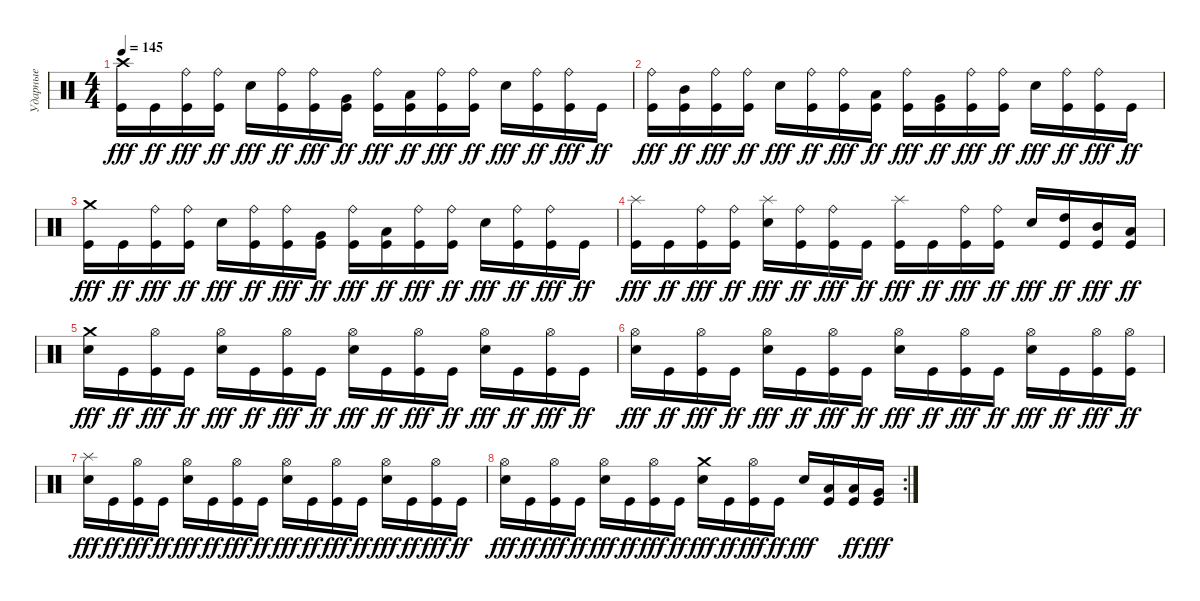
\track ("Ударные" "Ударные") {instrument percussion}
\staff {score}
\articulation defaults
\ts (4 4)
\tempo 145
\clef neutral
\ks c
("Crash high (hit)" "Kick (hit)").16{dy fff} "Kick (hit)".16{dy ff} ("Ride (bell)" "Kick (hit)").16{dy fff} ("Ride (bell)" "Kick (hit)").16{dy ff} "Electric Snare (hit)".16{dy fff} ("Ride (bell)" "Kick (hit)").16{dy ff} ("Ride (bell)" "Kick (hit)").16{dy fff} ("Very Low Tom (hit)" "Kick (hit)").16{dy ff} ("Ride (bell)" "Kick (hit)").16{dy fff} ("Low Tom (hit)" "Kick (hit)").16{dy ff} ("Ride (bell)" "Kick (hit)").16{dy fff} ("Ride (bell)" "Kick (hit)").16{dy ff} "Electric Snare (hit)".16{dy fff} ("Ride (bell)" "Kick (hit)").16{dy ff} ("Ride (bell)" "Kick (hit)").16{dy fff} "Kick (hit)".16{dy ff} |
("Ride (bell)" "Kick (hit)").16{dy fff} ("Mid Tom (hit)" "Kick (hit)").16{dy ff} ("Ride (bell)" "Kick (hit)").16{dy fff} ("Ride (bell)" "Kick (hit)").16{dy ff} "Electric Snare (hit)".16{dy fff} ("Ride (bell)" "Kick (hit)").16{dy ff} ("Ride (bell)" "Kick (hit)").16{dy fff} ("Low Floor Tom (hit)" "Kick (hit)").16{dy ff} ("Ride (bell)" "Kick (hit)").16{dy fff} ("Very Low Tom (hit)" "Kick (hit)").16{dy ff} ("Ride (bell)" "Kick (hit)").16{dy fff} ("Ride (bell)" "Kick (hit)").16{dy ff} "Electric Snare (hit)".16{dy fff} ("Ride (bell)" "Kick (hit)").16{dy ff} ("Ride (bell)" "Kick (hit)").16{dy fff} "Kick (hit)".16{dy ff} |
("Crash medium (hit)" "Kick (hit)").16{dy fff} "Kick (hit)".16{dy ff} ("Ride (bell)" "Kick (hit)").16{dy fff} ("Ride (bell)" "Kick (hit)").16{dy ff} "Electric Snare (hit)".16{dy fff} ("Ride (bell)" "Kick (hit)").16{dy ff} ("Ride (bell)" "Kick (hit)").16{dy fff} ("Very Low Tom (hit)" "Kick (hit)").16{dy ff} ("Ride (bell)" "Kick (hit)").16{dy fff} ("Low Tom (hit)" "Kick (hit)").16{dy ff} ("Ride (bell)" "Kick (hit)").16{dy fff} ("Ride (bell)" "Kick (hit)").16{dy ff} "Electric Snare (hit)".16{dy fff} ("Ride (bell)" "Kick (hit)").16{dy ff} ("Ride (bell)" "Kick (hit)").16{dy fff} "Kick (hit)".16{dy ff} |
("Splash (hit)" "Kick (hit)").16{dy fff} "Kick (hit)".16{dy ff} ("Ride (bell)" "Kick (hit)").16{dy fff} ("Ride (bell)" "Kick (hit)").16{dy ff} ("Splash (hit)" "Electric Snare (hit)").16{dy fff} ("Ride (bell)" "Kick (hit)").16{dy ff} ("Ride (bell)" "Kick (hit)").16{dy fff} "Kick (hit)".16{dy ff} ("Splash (hit)" "Kick (hit)").16{dy fff} "Kick (hit)".16{dy ff} ("Ride (bell)" "Kick (hit)").16{dy fff} ("Ride (bell)" "Kick (hit)").16{dy ff} "Electric Snare (hit)".16{dy fff} ("High Tom (hit)" "Kick (hit)").16{dy ff} ("Mid Tom (hit)" "Kick (hit)").16{dy fff} ("Low Tom (hit)" "Kick (hit)").16{dy ff} |
("Crash medium (hit)" "Electric Snare (hit)").16{dy fff} "Kick (hit)".16{dy ff} ("Hi-Hat (open)" "Kick (hit)").16{dy fff} "Kick (hit)".16{dy ff} ("Hi-Hat (open)" "Electric Snare (hit)").16{dy fff} "Kick (hit)".16{dy ff} ("Hi-Hat (open)" "Kick (hit)").16{dy fff} "Kick (hit)".16{dy ff} ("Hi-Hat (open)" "Electric Snare (hit)").16{dy fff} "Kick (hit)".16{dy ff} ("Hi-Hat (open)" "Kick (hit)").16{dy fff} "Kick (hit)".16{dy ff} ("Hi-Hat (open)" "Electric Snare (hit)").16{dy fff} "Kick (hit)".16{dy ff} ("Hi-Hat (open)" "Kick (hit)").16{dy fff} "Kick (hit)".16{dy ff} |
("Hi-Hat (open)" "Electric Snare (hit)").16{dy fff} "Kick (hit)".16{dy ff} ("Hi-Hat (open)" "Kick (hit)").16{dy fff} "Kick (hit)".16{dy ff} ("Hi-Hat (open)" "Electric Snare (hit)").16{dy fff} "Kick (hit)".16{dy ff} ("Hi-Hat (open)" "Kick (hit)").16{dy fff} "Kick (hit)".16{dy ff} ("Hi-Hat (open)" "Electric Snare (hit)").16{dy fff} "Kick (hit)".16{dy ff} ("Hi-Hat (open)" "Kick (hit)").16{dy fff} "Kick (hit)".16{dy ff} ("Hi-Hat (open)" "Electric Snare (hit)").16{dy fff} "Kick (hit)".16{dy ff} ("Hi-Hat (open)" "Kick (hit)").16{dy fff} ("Hi-Hat (open)" "Kick (hit)").16{dy ff} |
("Splash (hit)" "Electric Snare (hit)").16{dy fff} "Kick (hit)".16{dy ff} ("Hi-Hat (open)" "Kick (hit)").16{dy fff} "Kick (hit)".16{dy ff} ("Hi-Hat (open)" "Electric Snare (hit)").16{dy fff} "Kick (hit)".16{dy ff} ("Hi-Hat (open)" "Kick (hit)").16{dy fff} "Kick (hit)".16{dy ff} ("Hi-Hat (open)" "Electric Snare (hit)").16{dy fff} "Kick (hit)".16{dy ff} ("Hi-Hat (open)" "Kick (hit)").16{dy fff} "Kick (hit)".16{dy ff} ("Hi-Hat (open)" "Electric Snare (hit)").16{dy fff} "Kick (hit)".16{dy ff} ("Hi-Hat (open)" "Kick (hit)").16{dy fff} "Kick (hit)".16{dy ff} |
\rc 2
("Hi-Hat (open)" "Electric Snare (hit)").16{dy fff} "Kick (hit)".16{dy ff} ("Hi-Hat (open)" "Kick (hit)").16{dy fff} "Kick (hit)".16{dy ff} ("Hi-Hat (open)" "Electric Snare (hit)").16{dy fff} "Kick (hit)".16{dy ff} ("Hi-Hat (open)" "Kick (hit)").16{dy fff} "Kick (hit)".16{dy ff} ("Crash medium (hit)" "Electric Snare (hit)").16{dy fff} "Kick (hit)".16{dy ff} ("Hi-Hat (open)" "Kick (hit)").16{dy fff} "Kick (hit)".16{dy ff} "Electric Snare (hit)".16{dy fff} ("Low Tom (hit)" "Kick (hit)").16 ("Low Tom (hit)" "Kick (hit)").16{dy ff} ("Very Low Tom (hit)" "Kick (hit)").16{dy fff}
